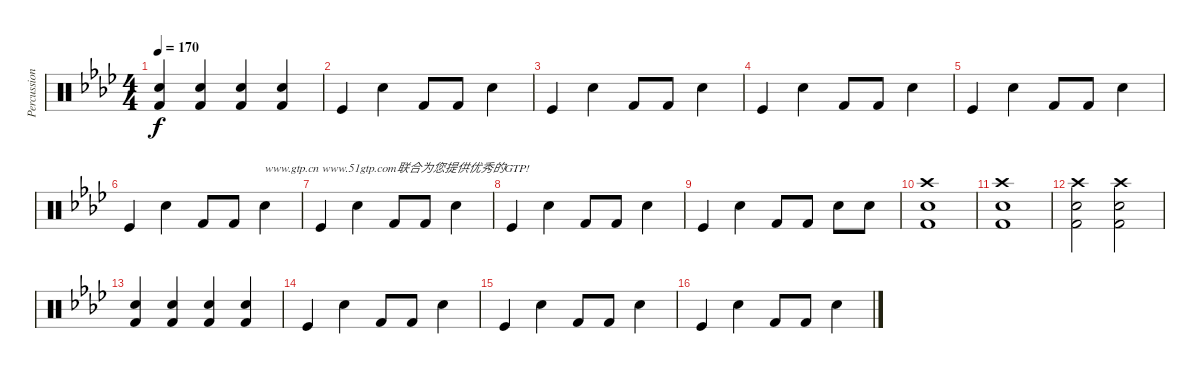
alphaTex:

\track ("Percussions" "Percussion") {instrument percussion}
\staff {score}
\articulation defaults
\ts (4 4)
\tempo 170
\clef neutral
\ks ab
("Snare (hit) 2" "Kick (hit) 2").4{dy f} ("Snare (hit) 2" "Kick (hit) 2").4 ("Snare (hit) 2" "Kick (hit) 2").4 ("Snare (hit) 2" "Kick (hit) 2").4 |
"Kick (hit)".4 "Snare (hit) 2".4 "Kick (hit) 2".8 "Kick (hit) 2".8 "Snare (hit) 2".4 |
"Kick (hit)".4 "Snare (hit) 2".4 "Kick (hit) 2".8 "Kick (hit) 2".8 "Snare (hit) 2".4 |
"Kick (hit)".4 "Snare (hit) 2".4 "Kick (hit) 2".8 "Kick (hit) 2".8 "Snare (hit) 2".4 |
"Kick (hit)".4 "Snare (hit) 2".4 "Kick (hit) 2".8 "Kick (hit) 2".8 "Snare (hit) 2".4 |
"Kick (hit)".4 "Snare (hit) 2".4 "Kick (hit) 2".8 "Kick (hit) 2".8 "Snare (hit) 2".4{txt "www.gtp.cn www.51gtp.com联合为您提供优秀的GTP!"} |
"Kick (hit)".4 "Snare (hit) 2".4 "Kick (hit) 2".8 "Kick (hit) 2".8 "Snare (hit) 2".4 |
"Kick (hit)".4 "Snare (hit) 2".4 "Kick (hit) 2".8 "Kick (hit) 2".8 "Snare (hit) 2".4 |
"Kick (hit)".4 "Snare (hit) 2".4 "Kick (hit) 2".8 "Kick (hit) 2".8 "Snare (hit) 2".8 "Snare (hit) 2".8 |
("Crash high (hit)" "Snare (hit) 2" "Kick (hit) 2").1 |
("Crash high (hit)" "Snare (hit) 2" "Kick (hit) 2").1 |
("Crash high (hit)" "Snare (hit) 2" "Kick (hit) 2").2 ("Crash high (hit)" "Snare (hit) 2" "Kick (hit) 2").2 |
("Snare (hit) 2" "Kick (hit) 2").4 ("Snare (hit) 2" "Kick (hit) 2").4 ("Snare (hit) 2" "Kick (hit) 2").4 ("Snare (hit) 2" "Kick (hit) 2").4 |
"Kick (hit)".4 "Snare (hit) 2".4 "Kick (hit) 2".8 "Kick (hit) 2".8 "Snare (hit) 2".4 |
"Kick (hit)".4 "Snare (hit) 2".4 "Kick (hit) 2".8 "Kick (hit) 2".8 "Snare (hit) 2".4 |
"Kick (hit)".4 "Snare (hit) 2".4 "Kick (hit) 2".8 "Kick (hit) 2".8 "Snare (hit) 2".4
